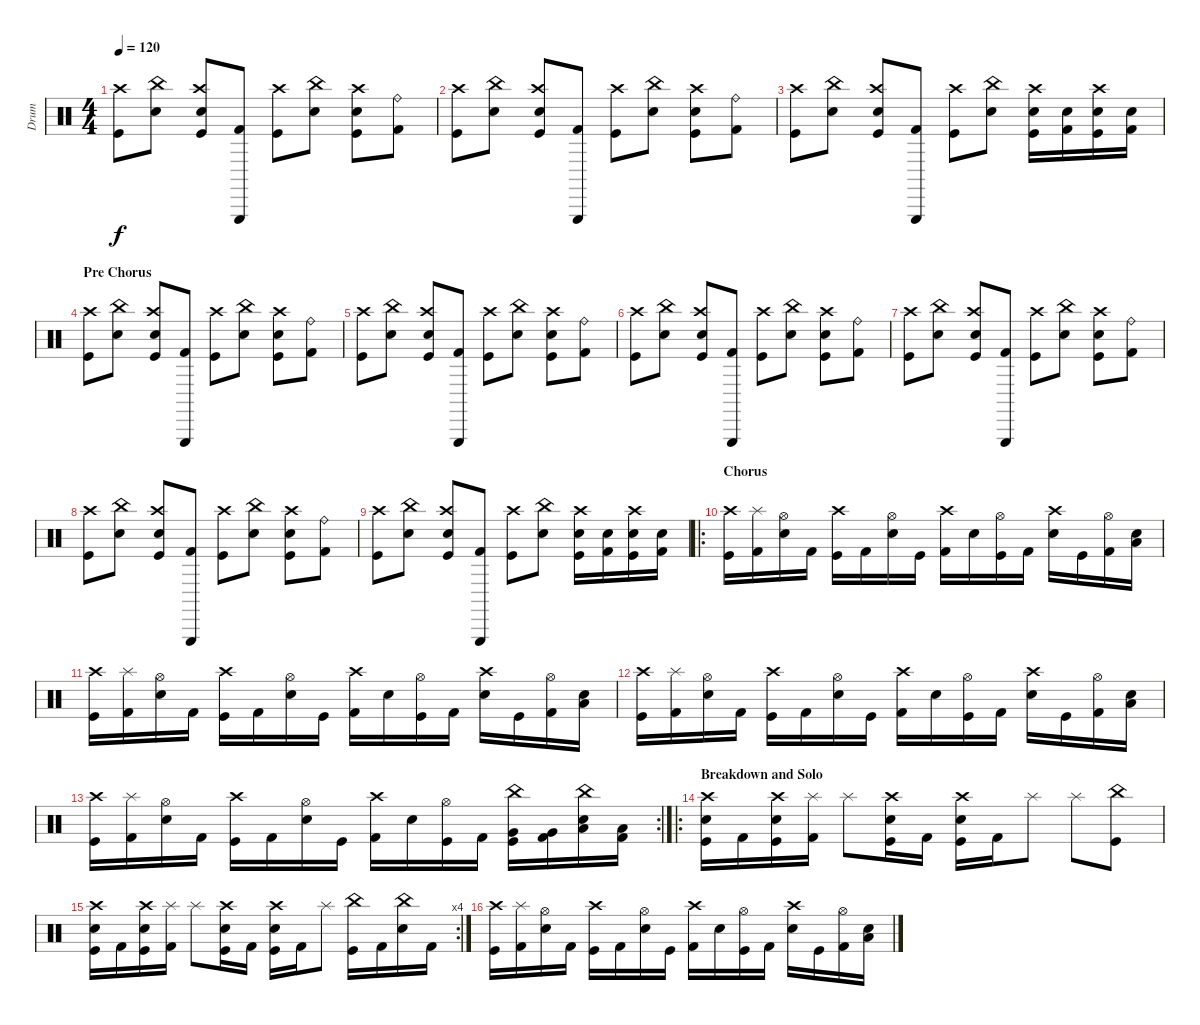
\track ("Drum" "Drum") {instrument percussion}
\staff {score}
\articulation defaults
\ts (4 4)
\tempo 120
\clef neutral
\ks c
("Crash high (hit)" "Kick (hit)").8{dy f} ("China (hit)" "Metronome (bell)").8 ("Crash high (hit)" "Snare (hit) 2" "Kick (hit)").8 ("Triangle (hit)" "Kick (hit) 2").8 ("Crash high (hit)" "Kick (hit)").8 ("China (hit)" "Metronome (bell)").8 ("Crash high (hit)" "Snare (hit) 2" "Kick (hit)").8 ("Ride (bell)" "Kick (hit) 2").8 |
("Crash high (hit)" "Kick (hit)").8 ("China (hit)" "Metronome (bell)").8 ("Crash high (hit)" "Snare (hit) 2" "Kick (hit)").8 ("Triangle (hit)" "Kick (hit) 2").8 ("Crash high (hit)" "Kick (hit)").8 ("China (hit)" "Metronome (bell)").8 ("Crash high (hit)" "Snare (hit) 2" "Kick (hit)").8 ("Ride (bell)" "Kick (hit) 2").8 |
("Crash high (hit)" "Kick (hit)").8 ("China (hit)" "Metronome (bell)").8 ("Crash high (hit)" "Snare (hit) 2" "Kick (hit)").8 ("Triangle (hit)" "Kick (hit) 2").8 ("Crash high (hit)" "Kick (hit)").8 ("China (hit)" "Metronome (bell)").8 ("Crash high (hit)" "Snare (hit) 2" "Kick (hit)").16 ("Snare (hit) 2" "Kick (hit) 2").16 ("Crash high (hit)" "Snare (hit) 2" "Kick (hit)").16 ("Snare (hit) 2" "Kick (hit) 2").16 |
\section ("" "Pre Chorus")
("Crash high (hit)" "Kick (hit)").8 ("China (hit)" "Metronome (bell)").8 ("Crash high (hit)" "Snare (hit) 2" "Kick (hit)").8 ("Triangle (hit)" "Kick (hit) 2").8 ("Crash high (hit)" "Kick (hit)").8 ("China (hit)" "Metronome (bell)").8 ("Crash high (hit)" "Snare (hit) 2" "Kick (hit)").8 ("Ride (bell)" "Kick (hit) 2").8 |
("Crash high (hit)" "Kick (hit)").8 ("China (hit)" "Metronome (bell)").8 ("Crash high (hit)" "Snare (hit) 2" "Kick (hit)").8 ("Triangle (hit)" "Kick (hit) 2").8 ("Crash high (hit)" "Kick (hit)").8 ("China (hit)" "Metronome (bell)").8 ("Crash high (hit)" "Snare (hit) 2" "Kick (hit)").8 ("Ride (bell)" "Kick (hit) 2").8 |
("Crash high (hit)" "Kick (hit)").8 ("China (hit)" "Metronome (bell)").8 ("Crash high (hit)" "Snare (hit) 2" "Kick (hit)").8 ("Triangle (hit)" "Kick (hit) 2").8 ("Crash high (hit)" "Kick (hit)").8 ("China (hit)" "Metronome (bell)").8 ("Crash high (hit)" "Snare (hit) 2" "Kick (hit)").8 ("Ride (bell)" "Kick (hit) 2").8 |
("Crash high (hit)" "Kick (hit)").8 ("China (hit)" "Metronome (bell)").8 ("Crash high (hit)" "Snare (hit) 2" "Kick (hit)").8 ("Triangle (hit)" "Kick (hit) 2").8 ("Crash high (hit)" "Kick (hit)").8 ("China (hit)" "Metronome (bell)").8 ("Crash high (hit)" "Snare (hit) 2" "Kick (hit)").8 ("Ride (bell)" "Kick (hit) 2").8 |
("Crash high (hit)" "Kick (hit)").8 ("China (hit)" "Metronome (bell)").8 ("Crash high (hit)" "Snare (hit) 2" "Kick (hit)").8 ("Triangle (hit)" "Kick (hit) 2").8 ("Crash high (hit)" "Kick (hit)").8 ("China (hit)" "Metronome (bell)").8 ("Crash high (hit)" "Snare (hit) 2" "Kick (hit)").8 ("Ride (bell)" "Kick (hit) 2").8 |
("Crash high (hit)" "Kick (hit)").8 ("China (hit)" "Metronome (bell)").8 ("Crash high (hit)" "Snare (hit) 2" "Kick (hit)").8 ("Triangle (hit)" "Kick (hit) 2").8 ("Crash high (hit)" "Kick (hit)").8 ("China (hit)" "Metronome (bell)").8 ("Crash high (hit)" "Snare (hit) 2" "Kick (hit)").16 ("Snare (hit) 2" "Kick (hit) 2").16 ("Crash high (hit)" "Snare (hit) 2" "Kick (hit)").16 ("Snare (hit) 2" "Kick (hit) 2").16 |
\ro
\section ("" "Chorus")
("Crash high (hit)" "Kick (hit)").16 ("Splash (hit)" "Kick (hit) 2").16 ("Hi-Hat (open)" "Snare (hit) 2").16 "Kick (hit) 2".16 ("Crash high (hit)" "Kick (hit)").16 "Kick (hit) 2".16 ("Hi-Hat (open)" "Snare (hit) 2").16 "Kick (hit)".16 ("Crash high (hit)" "Kick (hit) 2").16 "Snare (hit) 2".16 ("Hi-Hat (open)" "Kick (hit)").16 "Kick (hit) 2".16 ("Crash high (hit)" "Snare (hit) 2").16 "Kick (hit)".16 ("Hi-Hat (open)" "Kick (hit) 2").16 ("Low Tom (hit)" "Snare (hit) 2").16 |
("Crash high (hit)" "Kick (hit)").16 ("Splash (hit)" "Kick (hit) 2").16 ("Hi-Hat (open)" "Snare (hit) 2").16 "Kick (hit) 2".16 ("Crash high (hit)" "Kick (hit)").16 "Kick (hit) 2".16 ("Hi-Hat (open)" "Snare (hit) 2").16 "Kick (hit)".16 ("Crash high (hit)" "Kick (hit) 2").16 "Snare (hit) 2".16 ("Hi-Hat (open)" "Kick (hit)").16 "Kick (hit) 2".16 ("Crash high (hit)" "Snare (hit) 2").16 "Kick (hit)".16 ("Hi-Hat (open)" "Kick (hit) 2").16 ("Low Tom (hit)" "Snare (hit) 2").16 |
("Crash high (hit)" "Kick (hit)").16 ("Splash (hit)" "Kick (hit) 2").16 ("Hi-Hat (open)" "Snare (hit) 2").16 "Kick (hit) 2".16 ("Crash high (hit)" "Kick (hit)").16 "Kick (hit) 2".16 ("Hi-Hat (open)" "Snare (hit) 2").16 "Kick (hit)".16 ("Crash high (hit)" "Kick (hit) 2").16 "Snare (hit) 2".16 ("Hi-Hat (open)" "Kick (hit)").16 "Kick (hit) 2".16 ("Crash high (hit)" "Snare (hit) 2").16 "Kick (hit)".16 ("Hi-Hat (open)" "Kick (hit) 2").16 ("Low Tom (hit)" "Snare (hit) 2").16 |
\rc 2
("Crash high (hit)" "Kick (hit)").16 ("Splash (hit)" "Kick (hit) 2").16 ("Hi-Hat (open)" "Snare (hit) 2").16 "Kick (hit) 2".16 ("Crash high (hit)" "Kick (hit)").16 "Kick (hit) 2".16 ("Hi-Hat (open)" "Snare (hit) 2").16 "Kick (hit)".16 ("Crash high (hit)" "Kick (hit) 2").16 "Snare (hit) 2".16 ("Hi-Hat (open)" "Kick (hit)").16 "Kick (hit) 2".16 ("China (hit)" "Very Low Tom (hit)" "Kick (hit)").16 ("Very Low Tom (hit)" "Kick (hit) 2").16 ("China (hit)" "Low Floor Tom (hit)" "Snare (hit) 2").16 ("Low Floor Tom (hit)" "Kick (hit) 2").16 |
\ro
\section ("" "Breakdown and Solo")
("Crash high (hit)" "Snare (hit) 2" "Kick (hit)").16 "Kick (hit) 2".16 ("Crash high (hit)" "Snare (hit) 2" "Kick (hit)").16 ("Splash (hit)" "Kick (hit) 2").16 "Splash (hit)".8 ("Crash high (hit)" "Snare (hit) 2" "Kick (hit)").16 "Kick (hit) 2".16 ("Crash high (hit)" "Snare (hit) 2" "Kick (hit)").16 "Kick (hit) 2".16 "Splash (hit)".8 "Splash (hit)".8 ("China (hit)" "Kick (hit)").8 |
\rc 4
("Crash high (hit)" "Snare (hit) 2" "Kick (hit)").16 "Kick (hit) 2".16 ("Crash high (hit)" "Snare (hit) 2" "Kick (hit)").16 ("Splash (hit)" "Kick (hit) 2").16 "Splash (hit)".8 ("Crash high (hit)" "Snare (hit) 2" "Kick (hit)").16 "Kick (hit) 2".16 ("Crash high (hit)" "Snare (hit) 2" "Kick (hit)").16 "Kick (hit) 2".16 "Splash (hit)".8 ("China (hit)" "Kick (hit)").16 "Kick (hit) 2".16 ("China (hit)" "Snare (hit) 2").16 "Kick (hit) 2".16 |
("Crash high (hit)" "Kick (hit)").16 ("Splash (hit)" "Kick (hit) 2").16 ("Hi-Hat (open)" "Snare (hit) 2").16 "Kick (hit) 2".16 ("Crash high (hit)" "Kick (hit)").16 "Kick (hit) 2".16 ("Hi-Hat (open)" "Snare (hit) 2").16 "Kick (hit)".16 ("Crash high (hit)" "Kick (hit) 2").16 "Snare (hit) 2".16 ("Hi-Hat (open)" "Kick (hit)").16 "Kick (hit) 2".16 ("Crash high (hit)" "Snare (hit) 2").16 "Kick (hit)".16 ("Hi-Hat (open)" "Kick (hit) 2").16 ("Low Tom (hit)" "Snare (hit) 2").16
